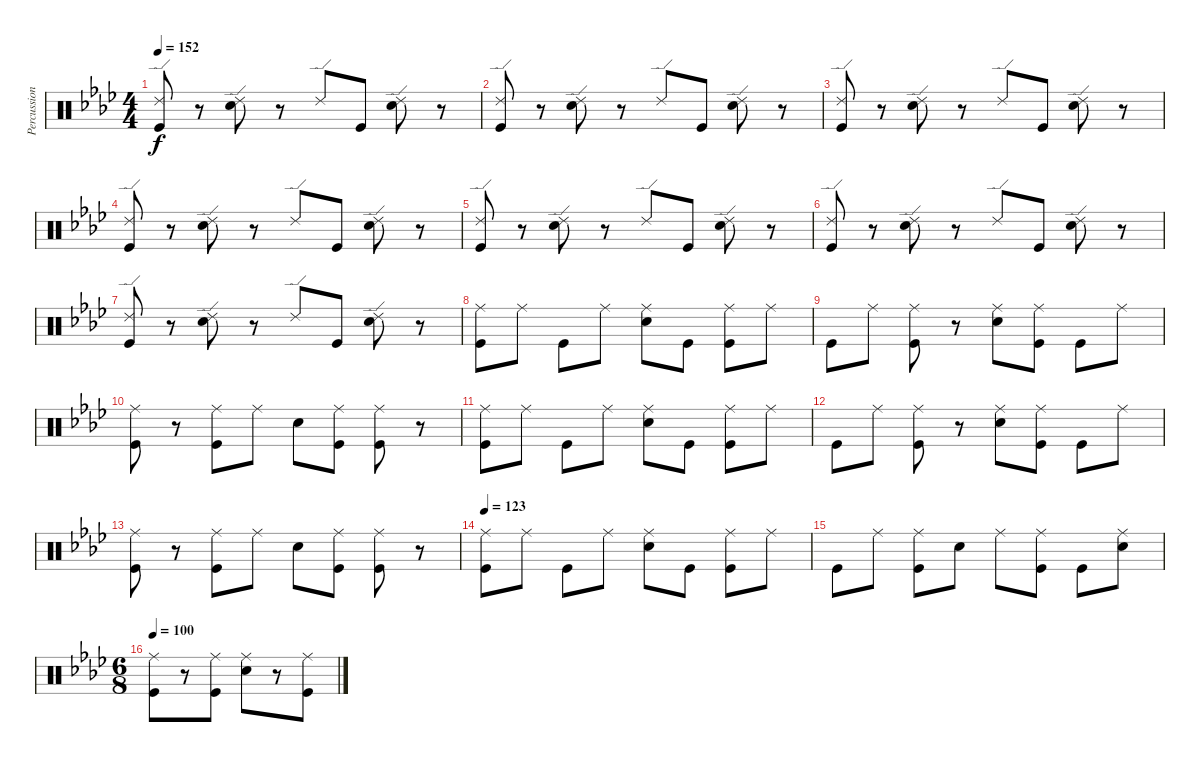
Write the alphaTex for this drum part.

\track ("Percussion" "Percussion") {instrument percussion}
\staff {score}
\articulation defaults
\ts (4 4)
\tempo 152
\clef neutral
\ks fminor
("Ride (edge) 2" "Kick (hit)").8{dy f} r.8 ("Ride (edge) 2" "Snare (hit) 2").8 r.8 "Ride (edge) 2".8 "Kick (hit)".8 ("Ride (edge) 2" "Snare (hit) 2").8 r.8 |
("Ride (edge) 2" "Kick (hit)").8 r.8 ("Ride (edge) 2" "Snare (hit) 2").8 r.8 "Ride (edge) 2".8 "Kick (hit)".8 ("Ride (edge) 2" "Snare (hit) 2").8 r.8 |
("Ride (edge) 2" "Kick (hit)").8 r.8 ("Ride (edge) 2" "Snare (hit) 2").8 r.8 "Ride (edge) 2".8 "Kick (hit)".8 ("Ride (edge) 2" "Snare (hit) 2").8 r.8 |
("Ride (edge) 2" "Kick (hit)").8 r.8 ("Ride (edge) 2" "Snare (hit) 2").8 r.8 "Ride (edge) 2".8 "Kick (hit)".8 ("Ride (edge) 2" "Snare (hit) 2").8 r.8 |
("Ride (edge) 2" "Kick (hit)").8 r.8 ("Ride (edge) 2" "Snare (hit) 2").8 r.8 "Ride (edge) 2".8 "Kick (hit)".8 ("Ride (edge) 2" "Snare (hit) 2").8 r.8 |
("Ride (edge) 2" "Kick (hit)").8 r.8 ("Ride (edge) 2" "Snare (hit) 2").8 r.8 "Ride (edge) 2".8 "Kick (hit)".8 ("Ride (edge) 2" "Snare (hit) 2").8 r.8 |
("Ride (edge) 2" "Kick (hit)").8 r.8 ("Ride (edge) 2" "Snare (hit) 2").8 r.8 "Ride (edge) 2".8 "Kick (hit)".8 ("Ride (edge) 2" "Snare (hit) 2").8 r.8 |
("Ride (middle)" "Kick (hit)").8 "Ride (middle)".8 "Kick (hit)".8 "Ride (middle)".8 ("Ride (middle)" "Snare (hit) 2").8 "Kick (hit)".8 ("Ride (middle)" "Kick (hit)").8 "Ride (middle)".8 |
"Kick (hit)".8 "Ride (middle)".8 ("Ride (middle)" "Kick (hit)").8 r.8 ("Ride (middle)" "Snare (hit) 2").8 ("Ride (middle)" "Kick (hit)").8 "Kick (hit)".8 "Ride (middle)".8 |
("Ride (middle)" "Kick (hit)").8 r.8 ("Ride (middle)" "Kick (hit)").8 "Ride (middle)".8 "Snare (hit) 2".8 ("Ride (middle)" "Kick (hit)").8 ("Ride (middle)" "Kick (hit)").8 r.8 |
("Ride (middle)" "Kick (hit)").8 "Ride (middle)".8 "Kick (hit)".8 "Ride (middle)".8 ("Ride (middle)" "Snare (hit) 2").8 "Kick (hit)".8 ("Ride (middle)" "Kick (hit)").8 "Ride (middle)".8 |
"Kick (hit)".8 "Ride (middle)".8 ("Ride (middle)" "Kick (hit)").8 r.8 ("Ride (middle)" "Snare (hit) 2").8 ("Ride (middle)" "Kick (hit)").8 "Kick (hit)".8 "Ride (middle)".8 |
("Ride (middle)" "Kick (hit)").8 r.8 ("Ride (middle)" "Kick (hit)").8 "Ride (middle)".8 "Snare (hit) 2".8 ("Ride (middle)" "Kick (hit)").8 ("Ride (middle)" "Kick (hit)").8 r.8 |
\tempo 123
("Ride (middle)" "Kick (hit)").8 "Ride (middle)".8 "Kick (hit)".8 "Ride (middle)".8 ("Ride (middle)" "Snare (hit) 2").8 "Kick (hit)".8 ("Ride (middle)" "Kick (hit)").8 "Ride (middle)".8 |
"Kick (hit)".8 "Ride (middle)".8 ("Ride (middle)" "Kick (hit)").8 "Snare (hit) 2".8 "Ride (middle)".8 ("Ride (middle)" "Kick (hit)").8 "Kick (hit)".8 ("Ride (middle)" "Snare (hit) 2").8 |
\ts (6 8)
\tempo 100
("Ride (middle)" "Kick (hit)").8 r.8 ("Ride (middle)" "Kick (hit)").8 ("Ride (middle)" "Snare (hit) 2").8 r.8 ("Ride (middle)" "Kick (hit)").8
